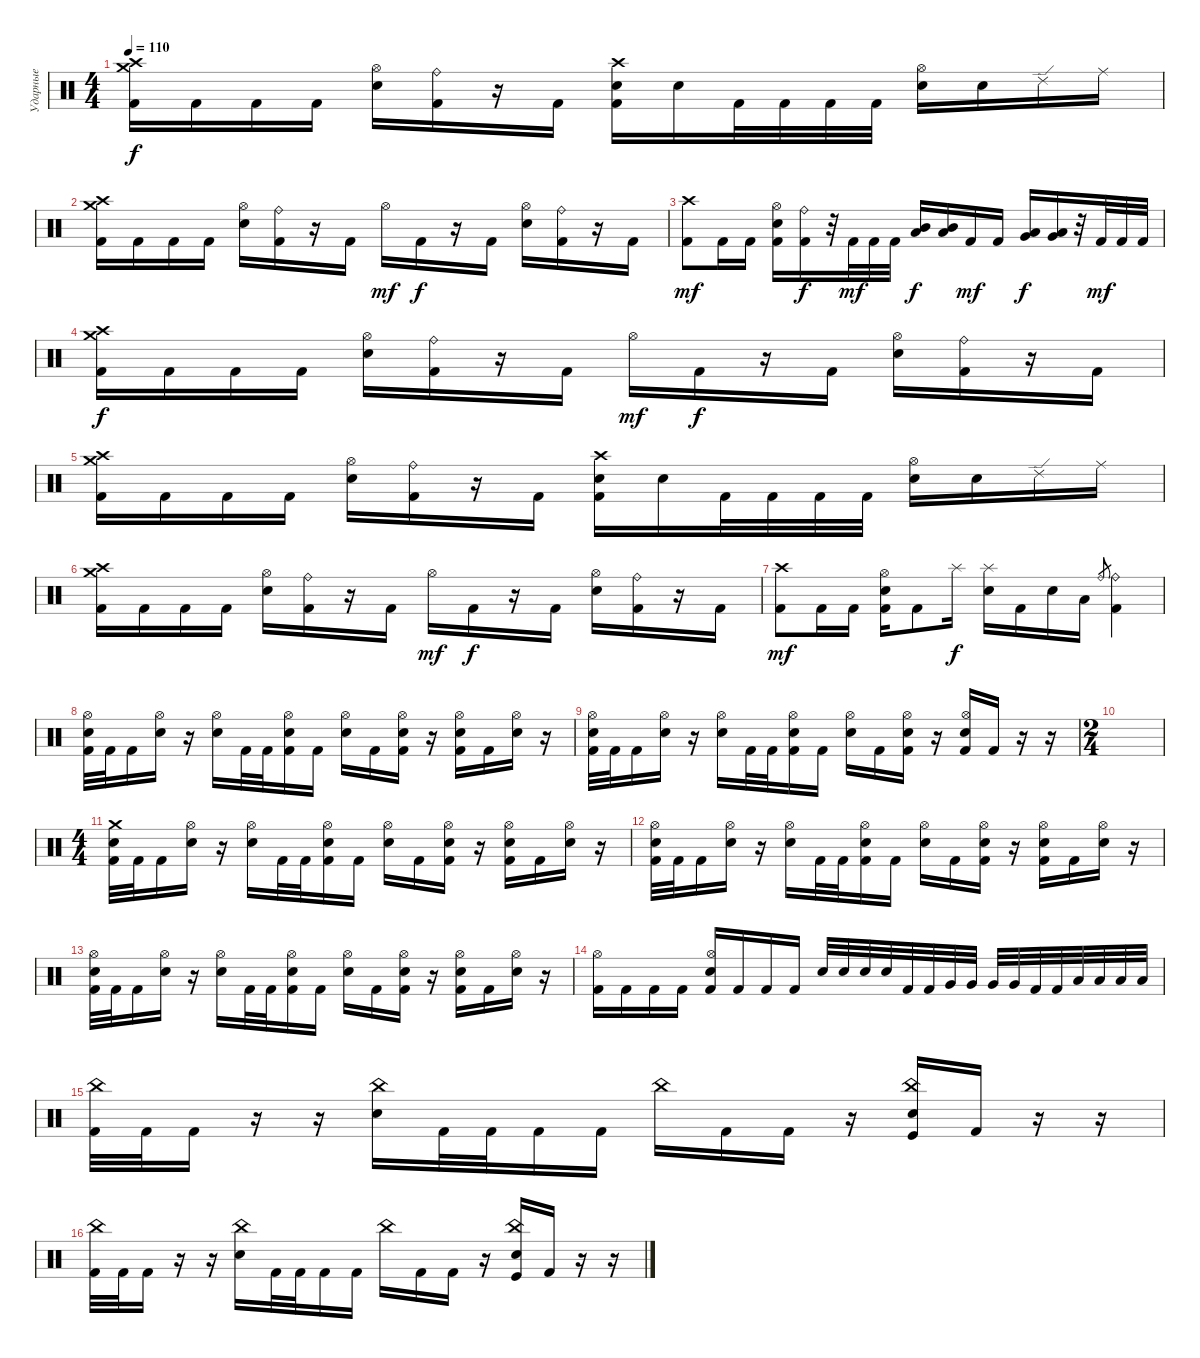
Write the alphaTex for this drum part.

\track ("Ударные" "Ударные") {instrument percussion}
\staff {score}
\articulation defaults
\ts (4 4)
\tempo 110
\clef neutral
\ks c
("Crash high (hit)" "Crash medium (hit)" "Kick (hit) 2").16{dy f} "Kick (hit) 2".16 "Kick (hit) 2".16 "Kick (hit) 2".16 ("Hi-Hat (open)" "Electric Snare (hit)").16 ("Ride (bell)" "Kick (hit) 2").16 r.16 "Kick (hit) 2".16 ("Crash high (hit)" "Electric Snare (hit)" "Kick (hit) 2").16 "Electric Snare (hit)".16 "Kick (hit) 2".32 "Kick (hit) 2".32 "Kick (hit) 2".32 "Kick (hit) 2".32 ("Hi-Hat (open)" "Electric Snare (hit)").16 "Electric Snare (hit)".16 "Ride (edge) 2".16 "Ride (middle)".16 |
("Crash high (hit)" "Crash medium (hit)" "Kick (hit) 2").16 "Kick (hit) 2".16 "Kick (hit) 2".16 "Kick (hit) 2".16 ("Hi-Hat (open)" "Electric Snare (hit)").16 ("Ride (bell)" "Kick (hit) 2").16 r.16 "Kick (hit) 2".16 "Hi-Hat (open)".16{dy mf} "Kick (hit) 2".16{dy f} r.16 "Kick (hit) 2".16 ("Hi-Hat (open)" "Electric Snare (hit)").16 ("Ride (bell)" "Kick (hit) 2").16 r.16 "Kick (hit) 2".16 |
("Crash high (hit)" "Kick (hit) 2").8{dy mf} "Kick (hit) 2".16 "Kick (hit) 2".16 ("Hi-Hat (open)" "Electric Snare (hit)" "Kick (hit) 2").16 ("Ride (bell)" "Kick (hit) 2").16{dy f} r.32 "Kick (hit) 2".32{dy mf} "Kick (hit) 2".32 "Kick (hit) 2".32 ("Low Tom (hit)" "Mid Tom (hit)").16{dy f} ("Low Tom (hit)" "Mid Tom (hit)").16 "Kick (hit) 2".16{dy mf} "Kick (hit) 2".16 ("Low Floor Tom (hit)" "Very Low Tom (hit)").16{dy f} ("Low Floor Tom (hit)" "Very Low Tom (hit)").16 r.32 "Kick (hit) 2".32{dy mf} "Kick (hit) 2".32 "Kick (hit) 2".32 |
("Crash high (hit)" "Crash medium (hit)" "Kick (hit) 2").16{dy f} "Kick (hit) 2".16 "Kick (hit) 2".16 "Kick (hit) 2".16 ("Hi-Hat (open)" "Electric Snare (hit)").16 ("Ride (bell)" "Kick (hit) 2").16 r.16 "Kick (hit) 2".16 "Hi-Hat (open)".16{dy mf} "Kick (hit) 2".16{dy f} r.16 "Kick (hit) 2".16 ("Hi-Hat (open)" "Electric Snare (hit)").16 ("Ride (bell)" "Kick (hit) 2").16 r.16 "Kick (hit) 2".16 |
("Crash high (hit)" "Crash medium (hit)" "Kick (hit) 2").16 "Kick (hit) 2".16 "Kick (hit) 2".16 "Kick (hit) 2".16 ("Hi-Hat (open)" "Electric Snare (hit)").16 ("Ride (bell)" "Kick (hit) 2").16 r.16 "Kick (hit) 2".16 ("Crash high (hit)" "Electric Snare (hit)" "Kick (hit) 2").16 "Electric Snare (hit)".16 "Kick (hit) 2".32 "Kick (hit) 2".32 "Kick (hit) 2".32 "Kick (hit) 2".32 ("Hi-Hat (open)" "Electric Snare (hit)").16 "Electric Snare (hit)".16 "Ride (edge) 2".16 "Ride (middle)".16 |
("Crash high (hit)" "Crash medium (hit)" "Kick (hit) 2").16 "Kick (hit) 2".16 "Kick (hit) 2".16 "Kick (hit) 2".16 ("Hi-Hat (open)" "Electric Snare (hit)").16 ("Ride (bell)" "Kick (hit) 2").16 r.16 "Kick (hit) 2".16 "Hi-Hat (open)".16{dy mf} "Kick (hit) 2".16{dy f} r.16 "Kick (hit) 2".16 ("Hi-Hat (open)" "Electric Snare (hit)").16 ("Ride (bell)" "Kick (hit) 2").16 r.16 "Kick (hit) 2".16 |
("Crash high (hit)" "Kick (hit) 2").8{dy mf} "Kick (hit) 2".16 "Kick (hit) 2".16 ("Hi-Hat (open)" "Electric Snare (hit)" "Kick (hit) 2").16 "Kick (hit) 2".8 "Splash (hit)".16{dy f} ("Splash (hit)" "Electric Snare (hit)").16 "Kick (hit) 2".16 "Electric Snare (hit)".16 "Low Tom (hit)".16 "Ride (bell)".8{gr} ("Ride (bell)" "Kick (hit) 2").4 |
("Kick (hit) 2" "Electric Snare (hit)" "Hi-Hat (open)").32 "Kick (hit) 2".32 "Kick (hit) 2".16 ("Electric Snare (hit)" "Hi-Hat (open)").16 r.16 ("Electric Snare (hit)" "Hi-Hat (open)").16 "Kick (hit) 2".32 "Kick (hit) 2".32 ("Kick (hit) 2" "Electric Snare (hit)" "Hi-Hat (open)").16 "Kick (hit) 2".16 ("Electric Snare (hit)" "Hi-Hat (open)").16 "Kick (hit) 2".16 ("Kick (hit) 2" "Snare (hit) 2" "Hi-Hat (open)").16 r.16 ("Electric Snare (hit)" "Kick (hit) 2" "Hi-Hat (open)").16 "Kick (hit) 2".16 ("Electric Snare (hit)" "Hi-Hat (open)").16 r.16 |
("Kick (hit) 2" "Electric Snare (hit)" "Hi-Hat (open)").32 "Kick (hit) 2".32 "Kick (hit) 2".16 ("Electric Snare (hit)" "Hi-Hat (open)").16 r.16 ("Electric Snare (hit)" "Hi-Hat (open)").16 "Kick (hit) 2".32 "Kick (hit) 2".32 ("Kick (hit) 2" "Electric Snare (hit)" "Hi-Hat (open)").16 "Kick (hit) 2".16 ("Electric Snare (hit)" "Hi-Hat (open)").16 "Kick (hit) 2".16 ("Kick (hit) 2" "Electric Snare (hit)" "Hi-Hat (open)").16 r.16 ("Electric Snare (hit)" "Kick (hit) 2" "Hi-Hat (open)").16 "Kick (hit) 2".16 r.16 r.16 |
\ts (2 4)
|
\ts (4 4)
("Kick (hit) 2" "Electric Snare (hit)" "Crash medium (hit)").32 "Kick (hit) 2".32 "Kick (hit) 2".16 ("Electric Snare (hit)" "Hi-Hat (open)").16 r.16 ("Electric Snare (hit)" "Hi-Hat (open)").16 "Kick (hit) 2".32 "Kick (hit) 2".32 ("Kick (hit) 2" "Electric Snare (hit)" "Hi-Hat (open)").16 "Kick (hit) 2".16 ("Electric Snare (hit)" "Hi-Hat (open)").16 "Kick (hit) 2".16 ("Kick (hit) 2" "Snare (hit) 2" "Hi-Hat (open)").16 r.16 ("Electric Snare (hit)" "Kick (hit) 2" "Hi-Hat (open)").16 "Kick (hit) 2".16 ("Electric Snare (hit)" "Hi-Hat (open)").16 r.16 |
("Kick (hit) 2" "Electric Snare (hit)" "Hi-Hat (open)").32 "Kick (hit) 2".32 "Kick (hit) 2".16 ("Electric Snare (hit)" "Hi-Hat (open)").16 r.16 ("Electric Snare (hit)" "Hi-Hat (open)").16 "Kick (hit) 2".32 "Kick (hit) 2".32 ("Kick (hit) 2" "Electric Snare (hit)" "Hi-Hat (open)").16 "Kick (hit) 2".16 ("Electric Snare (hit)" "Hi-Hat (open)").16 "Kick (hit) 2".16 ("Kick (hit) 2" "Snare (hit) 2" "Hi-Hat (open)").16 r.16 ("Electric Snare (hit)" "Kick (hit) 2" "Hi-Hat (open)").16 "Kick (hit) 2".16 ("Electric Snare (hit)" "Hi-Hat (open)").16 r.16 |
("Kick (hit) 2" "Electric Snare (hit)" "Hi-Hat (open)").32 "Kick (hit) 2".32 "Kick (hit) 2".16 ("Electric Snare (hit)" "Hi-Hat (open)").16 r.16 ("Electric Snare (hit)" "Hi-Hat (open)").16 "Kick (hit) 2".32 "Kick (hit) 2".32 ("Kick (hit) 2" "Electric Snare (hit)" "Hi-Hat (open)").16 "Kick (hit) 2".16 ("Electric Snare (hit)" "Hi-Hat (open)").16 "Kick (hit) 2".16 ("Kick (hit) 2" "Snare (hit) 2" "Hi-Hat (open)").16 r.16 ("Electric Snare (hit)" "Kick (hit) 2" "Hi-Hat (open)").16 "Kick (hit) 2".16 ("Electric Snare (hit)" "Hi-Hat (open)").16 r.16 |
("Kick (hit) 2" "Hi-Hat (open)").16 "Kick (hit) 2".16 "Kick (hit) 2".16 "Kick (hit) 2".16 ("Kick (hit) 2" "Electric Snare (hit)" "Hi-Hat (open)").16 "Kick (hit) 2".16 "Kick (hit) 2".16 "Kick (hit) 2".16 "Electric Snare (hit)".32 "Electric Snare (hit)".32 "Electric Snare (hit)".32 "Electric Snare (hit)".32 "Kick (hit) 2".32 "Kick (hit) 2".32 "Very Low Tom (hit)".32 "Very Low Tom (hit)".32 "Very Low Tom (hit)".32 "Very Low Tom (hit)".32 "Kick (hit) 2".32 "Kick (hit) 2".32 "Low Floor Tom (hit)".32 "Low Floor Tom (hit)".32 "Low Floor Tom (hit)".32 "Low Floor Tom (hit)".32 |
("Kick (hit) 2" "China (hit)").32 "Kick (hit) 2".32 "Kick (hit) 2".16 r.16 r.16 ("Electric Snare (hit)" "China (hit)").16 "Kick (hit) 2".32 "Kick (hit) 2".32 "Kick (hit) 2".16 "Kick (hit) 2".16 "China (hit)".16 "Kick (hit) 2".16 "Kick (hit) 2".16 r.16 ("Electric Snare (hit)" "Kick (hit)" "China (hit)").16 "Kick (hit) 2".16 r.16 r.16 |
("Kick (hit) 2" "China (hit)").32 "Kick (hit) 2".32 "Kick (hit) 2".16 r.16 r.16 ("Electric Snare (hit)" "China (hit)").16 "Kick (hit) 2".32 "Kick (hit) 2".32 "Kick (hit) 2".16 "Kick (hit) 2".16 "China (hit)".16 "Kick (hit) 2".16 "Kick (hit) 2".16 r.16 ("Electric Snare (hit)" "Kick (hit)" "China (hit)").16 "Kick (hit) 2".16 r.16 r.16
